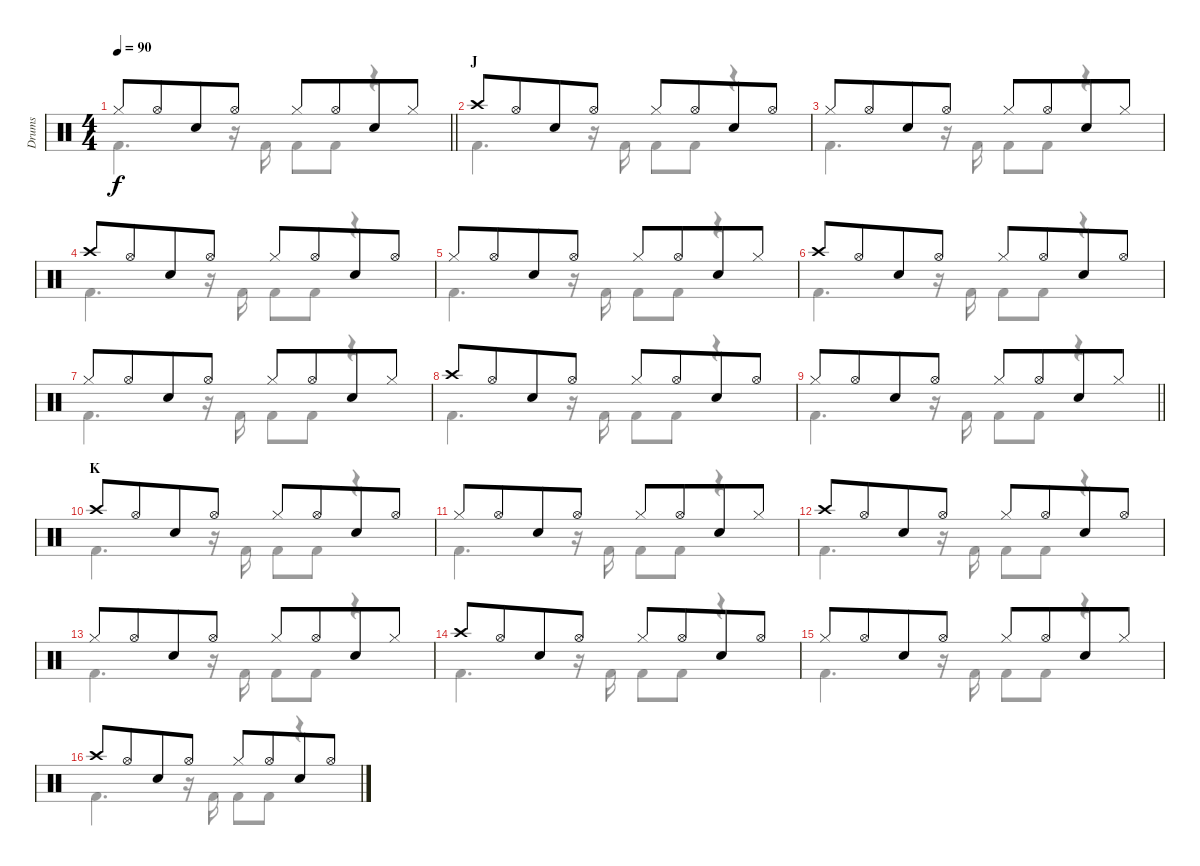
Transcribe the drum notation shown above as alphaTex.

\track ("Drums" "Drums") {instrument percussion}
\staff {score}
\articulation defaults
\voice
\ts (4 4)
\tempo 90
\clef neutral
\barLineRight lightlight
\ks c "Hi-Hat (closed)".8{dy f} "Hi-Hat (open)".8{beam merge} "Snare (hit) 2".8 "Hi-Hat (open)".8 "Hi-Hat (closed)".8 "Hi-Hat (open)".8{beam merge} "Snare (hit) 2".8 "Hi-Hat (closed)".8
|
\section ("" "J")
"Crash high (hit)".8 "Hi-Hat (open)".8{beam merge} "Snare (hit) 2".8 "Hi-Hat (open)".8 "Hi-Hat (closed)".8 "Hi-Hat (open)".8{beam merge} "Snare (hit) 2".8 "Hi-Hat (open)".8 |
"Hi-Hat (closed)".8 "Hi-Hat (open)".8{beam merge} "Snare (hit) 2".8 "Hi-Hat (open)".8 "Hi-Hat (closed)".8 "Hi-Hat (open)".8{beam merge} "Snare (hit) 2".8 "Hi-Hat (closed)".8 |
"Crash high (hit)".8 "Hi-Hat (open)".8{beam merge} "Snare (hit) 2".8 "Hi-Hat (open)".8 "Hi-Hat (closed)".8 "Hi-Hat (open)".8{beam merge} "Snare (hit) 2".8 "Hi-Hat (open)".8 |
"Hi-Hat (closed)".8 "Hi-Hat (open)".8{beam merge} "Snare (hit) 2".8 "Hi-Hat (open)".8 "Hi-Hat (closed)".8 "Hi-Hat (open)".8{beam merge} "Snare (hit) 2".8 "Hi-Hat (closed)".8 |
"Crash high (hit)".8 "Hi-Hat (open)".8{beam merge} "Snare (hit) 2".8 "Hi-Hat (open)".8 "Hi-Hat (closed)".8 "Hi-Hat (open)".8{beam merge} "Snare (hit) 2".8 "Hi-Hat (open)".8 |
"Hi-Hat (closed)".8 "Hi-Hat (open)".8{beam merge} "Snare (hit) 2".8 "Hi-Hat (open)".8 "Hi-Hat (closed)".8 "Hi-Hat (open)".8{beam merge} "Snare (hit) 2".8 "Hi-Hat (closed)".8 |
"Crash high (hit)".8 "Hi-Hat (open)".8{beam merge} "Snare (hit) 2".8 "Hi-Hat (open)".8 "Hi-Hat (closed)".8 "Hi-Hat (open)".8{beam merge} "Snare (hit) 2".8 "Hi-Hat (open)".8 |
\barLineRight lightlight "Hi-Hat (closed)".8 "Hi-Hat (open)".8{beam merge} "Snare (hit) 2".8 "Hi-Hat (open)".8 "Hi-Hat (closed)".8 "Hi-Hat (open)".8{beam merge} "Snare (hit) 2".8 "Hi-Hat (closed)".8
|
\section ("" "K")
"Crash high (hit)".8 "Hi-Hat (open)".8{beam merge} "Snare (hit) 2".8 "Hi-Hat (open)".8 "Hi-Hat (closed)".8 "Hi-Hat (open)".8{beam merge} "Snare (hit) 2".8 "Hi-Hat (open)".8 |
"Hi-Hat (closed)".8 "Hi-Hat (open)".8{beam merge} "Snare (hit) 2".8 "Hi-Hat (open)".8 "Hi-Hat (closed)".8 "Hi-Hat (open)".8{beam merge} "Snare (hit) 2".8 "Hi-Hat (closed)".8 |
"Crash high (hit)".8 "Hi-Hat (open)".8{beam merge} "Snare (hit) 2".8 "Hi-Hat (open)".8 "Hi-Hat (closed)".8 "Hi-Hat (open)".8{beam merge} "Snare (hit) 2".8 "Hi-Hat (open)".8 |
"Hi-Hat (closed)".8 "Hi-Hat (open)".8{beam merge} "Snare (hit) 2".8 "Hi-Hat (open)".8 "Hi-Hat (closed)".8 "Hi-Hat (open)".8{beam merge} "Snare (hit) 2".8 "Hi-Hat (closed)".8 |
"Crash high (hit)".8 "Hi-Hat (open)".8{beam merge} "Snare (hit) 2".8 "Hi-Hat (open)".8 "Hi-Hat (closed)".8 "Hi-Hat (open)".8{beam merge} "Snare (hit) 2".8 "Hi-Hat (open)".8 |
"Hi-Hat (closed)".8 "Hi-Hat (open)".8{beam merge} "Snare (hit) 2".8 "Hi-Hat (open)".8 "Hi-Hat (closed)".8 "Hi-Hat (open)".8{beam merge} "Snare (hit) 2".8 "Hi-Hat (closed)".8 |
"Crash high (hit)".8 "Hi-Hat (open)".8{beam merge} "Snare (hit) 2".8 "Hi-Hat (open)".8 "Hi-Hat (closed)".8 "Hi-Hat (open)".8{beam merge} "Snare (hit) 2".8 "Hi-Hat (open)".8
\voice
\clef neutral
\ottava regular
\simile none
\barLineRight lightlight
\ks c "Kick (hit) 2".4{d dy f}
r.16 "Kick (hit) 2".16 "Kick (hit) 2".8 "Kick (hit) 2".8 r.4 |
"Kick (hit) 2".4{d} r.16 "Kick (hit) 2".16 "Kick (hit) 2".8 "Kick (hit) 2".8 r.4 |
"Kick (hit) 2".4{d} r.16 "Kick (hit) 2".16 "Kick (hit) 2".8 "Kick (hit) 2".8 r.4 |
"Kick (hit) 2".4{d} r.16 "Kick (hit) 2".16 "Kick (hit) 2".8 "Kick (hit) 2".8 r.4 |
"Kick (hit) 2".4{d} r.16 "Kick (hit) 2".16 "Kick (hit) 2".8 "Kick (hit) 2".8 r.4 |
"Kick (hit) 2".4{d} r.16 "Kick (hit) 2".16 "Kick (hit) 2".8 "Kick (hit) 2".8 r.4 |
"Kick (hit) 2".4{d} r.16 "Kick (hit) 2".16 "Kick (hit) 2".8 "Kick (hit) 2".8 r.4 |
"Kick (hit) 2".4{d} r.16 "Kick (hit) 2".16 "Kick (hit) 2".8 "Kick (hit) 2".8 r.4 |
\barLineRight lightlight "Kick (hit) 2".4{d}
r.16 "Kick (hit) 2".16 "Kick (hit) 2".8 "Kick (hit) 2".8 r.4 |
"Kick (hit) 2".4{d} r.16 "Kick (hit) 2".16 "Kick (hit) 2".8 "Kick (hit) 2".8 r.4 |
"Kick (hit) 2".4{d} r.16 "Kick (hit) 2".16 "Kick (hit) 2".8 "Kick (hit) 2".8 r.4 |
"Kick (hit) 2".4{d} r.16 "Kick (hit) 2".16 "Kick (hit) 2".8 "Kick (hit) 2".8 r.4 |
"Kick (hit) 2".4{d} r.16 "Kick (hit) 2".16 "Kick (hit) 2".8 "Kick (hit) 2".8 r.4 |
"Kick (hit) 2".4{d} r.16 "Kick (hit) 2".16 "Kick (hit) 2".8 "Kick (hit) 2".8 r.4 |
"Kick (hit) 2".4{d} r.16 "Kick (hit) 2".16 "Kick (hit) 2".8 "Kick (hit) 2".8 r.4 |
"Kick (hit) 2".4{d} r.16 "Kick (hit) 2".16 "Kick (hit) 2".8 "Kick (hit) 2".8 r.4
